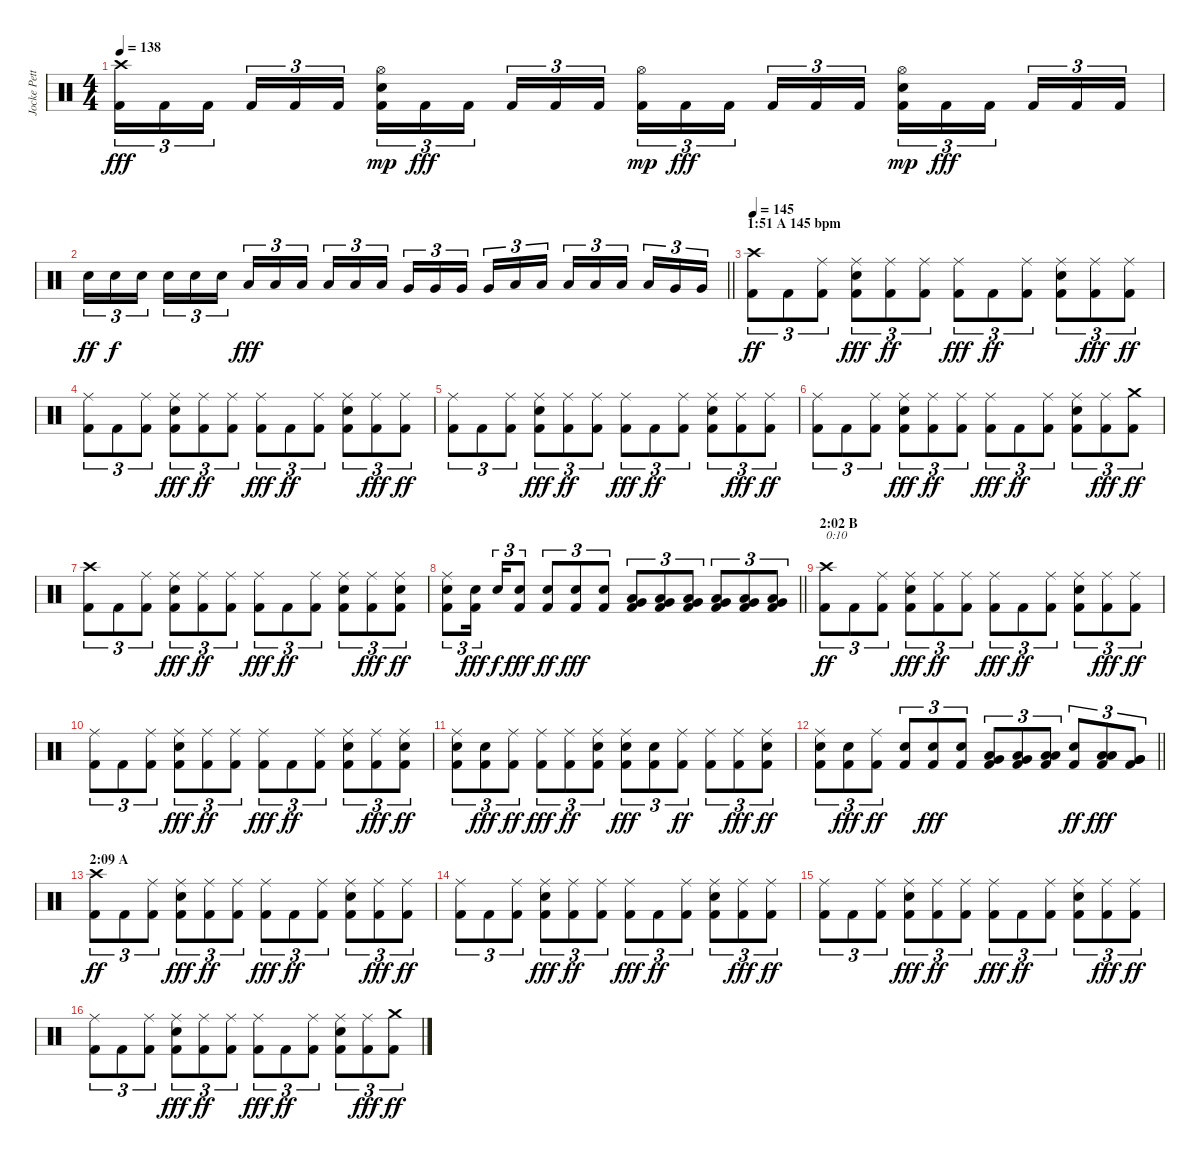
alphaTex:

\track ("Jocke Pettersson" "Jocke Pett") {instrument percussion}
\staff {score}
\articulation defaults
\ts (4 4)
\tempo 138
\clef neutral
\ks c
("Kick (hit) 2" "Crash high (hit)").16{tu (3 2) dy fff} "Kick (hit) 2".16{tu (3 2)} "Kick (hit) 2".16{tu (3 2) beam splitsecondary} "Kick (hit) 2".16{tu (3 2)} "Kick (hit) 2".16{tu (3 2)} "Kick (hit) 2".16{tu (3 2)} ("Kick (hit) 2" "Electric Snare (hit)" "Hi-Hat (open)").16{tu (3 2) dy mp} "Kick (hit) 2".16{tu (3 2) dy fff} "Kick (hit) 2".16{tu (3 2) beam splitsecondary} "Kick (hit) 2".16{tu (3 2)} "Kick (hit) 2".16{tu (3 2)} "Kick (hit) 2".16{tu (3 2)} ("Kick (hit) 2" "Hi-Hat (open)").16{tu (3 2) dy mp} "Kick (hit) 2".16{tu (3 2) dy fff} "Kick (hit) 2".16{tu (3 2) beam splitsecondary} "Kick (hit) 2".16{tu (3 2)} "Kick (hit) 2".16{tu (3 2)} "Kick (hit) 2".16{tu (3 2)} ("Kick (hit) 2" "Electric Snare (hit)" "Hi-Hat (open)").16{tu (3 2) dy mp} "Kick (hit) 2".16{tu (3 2) dy fff} "Kick (hit) 2".16{tu (3 2) beam splitsecondary} "Kick (hit) 2".16{tu (3 2)} "Kick (hit) 2".16{tu (3 2)} "Kick (hit) 2".16{tu (3 2)} |
\barLineRight lightlight "Electric Snare (hit)".16{tu (3 2) dy ff} "Electric Snare (hit)".16{tu (3 2) dy f} "Electric Snare (hit)".16{tu (3 2) beam splitsecondary} "Electric Snare (hit)".16{tu (3 2)} "Electric Snare (hit)".16{tu (3 2)} "Electric Snare (hit)".16{tu (3 2)} "Low Tom (hit)".16{tu (3 2) dy fff} "Low Tom (hit)".16{tu (3 2)} "Low Tom (hit)".16{tu (3 2) beam splitsecondary} "Low Tom (hit)".16{tu (3 2)} "Low Tom (hit)".16{tu (3 2)} "Low Tom (hit)".16{tu (3 2)} "Very Low Tom (hit)".16{tu (3 2)} "Very Low Tom (hit)".16{tu (3 2)} "Very Low Tom (hit)".16{tu (3 2) beam splitsecondary} "Very Low Tom (hit)".16{tu (3 2)} "Low Tom (hit)".16{tu (3 2)} "Low Tom (hit)".16{tu (3 2)} "Low Tom (hit)".16{tu (3 2)} "Low Tom (hit)".16{tu (3 2)} "Low Tom (hit)".16{tu (3 2) beam splitsecondary} "Low Tom (hit)".16{tu (3 2)} "Very Low Tom (hit)".16{tu (3 2)} "Very Low Tom (hit)".16{tu (3 2)}
|
\section ("" "1:51 A 145 bpm")
\tempo 145
("Kick (hit) 2" "Crash high (hit)").8{tu (3 2) dy ff} "Kick (hit) 2".8{tu (3 2)} ("Kick (hit) 2" "Ride (middle)").8{tu (3 2)} ("Kick (hit) 2" "Electric Snare (hit)" "Ride (middle)").8{tu (3 2) dy fff} ("Kick (hit) 2" "Ride (middle)").8{tu (3 2) dy ff} ("Kick (hit) 2" "Ride (middle)").8{tu (3 2)} ("Kick (hit) 2" "Ride (middle)").8{tu (3 2) dy fff} "Kick (hit) 2".8{tu (3 2) dy ff} ("Kick (hit) 2" "Ride (middle)").8{tu (3 2)} ("Kick (hit) 2" "Electric Snare (hit)" "Ride (middle)").8{tu (3 2)} ("Kick (hit) 2" "Ride (middle)").8{tu (3 2) dy fff} ("Kick (hit) 2" "Ride (middle)").8{tu (3 2) dy ff} |
("Kick (hit) 2" "Ride (middle)").8{tu (3 2)} "Kick (hit) 2".8{tu (3 2)} ("Kick (hit) 2" "Ride (middle)").8{tu (3 2)} ("Kick (hit) 2" "Electric Snare (hit)" "Ride (middle)").8{tu (3 2) dy fff} ("Kick (hit) 2" "Ride (middle)").8{tu (3 2) dy ff} ("Kick (hit) 2" "Ride (middle)").8{tu (3 2)} ("Kick (hit) 2" "Ride (middle)").8{tu (3 2) dy fff} "Kick (hit) 2".8{tu (3 2) dy ff} ("Kick (hit) 2" "Ride (middle)").8{tu (3 2)} ("Kick (hit) 2" "Electric Snare (hit)" "Ride (middle)").8{tu (3 2)} ("Kick (hit) 2" "Ride (middle)").8{tu (3 2) dy fff} ("Kick (hit) 2" "Ride (middle)").8{tu (3 2) dy ff} |
("Kick (hit) 2" "Ride (middle)").8{tu (3 2)} "Kick (hit) 2".8{tu (3 2)} ("Kick (hit) 2" "Ride (middle)").8{tu (3 2)} ("Kick (hit) 2" "Electric Snare (hit)" "Ride (middle)").8{tu (3 2) dy fff} ("Kick (hit) 2" "Ride (middle)").8{tu (3 2) dy ff} ("Kick (hit) 2" "Ride (middle)").8{tu (3 2)} ("Kick (hit) 2" "Ride (middle)").8{tu (3 2) dy fff} "Kick (hit) 2".8{tu (3 2) dy ff} ("Kick (hit) 2" "Ride (middle)").8{tu (3 2)} ("Kick (hit) 2" "Electric Snare (hit)" "Ride (middle)").8{tu (3 2)} ("Kick (hit) 2" "Ride (middle)").8{tu (3 2) dy fff} ("Kick (hit) 2" "Ride (middle)").8{tu (3 2) dy ff} |
("Kick (hit) 2" "Ride (middle)").8{tu (3 2)} "Kick (hit) 2".8{tu (3 2)} ("Kick (hit) 2" "Ride (middle)").8{tu (3 2)} ("Kick (hit) 2" "Electric Snare (hit)" "Ride (middle)").8{tu (3 2) dy fff} ("Kick (hit) 2" "Ride (middle)").8{tu (3 2) dy ff} ("Kick (hit) 2" "Ride (middle)").8{tu (3 2)} ("Kick (hit) 2" "Ride (middle)").8{tu (3 2) dy fff} "Kick (hit) 2".8{tu (3 2) dy ff} ("Kick (hit) 2" "Ride (middle)").8{tu (3 2)} ("Kick (hit) 2" "Electric Snare (hit)" "Ride (middle)").8{tu (3 2)} ("Kick (hit) 2" "Ride (middle)").8{tu (3 2) dy fff} ("Kick (hit) 2" "Crash medium (hit)").8{tu (3 2) dy ff} |
("Kick (hit) 2" "Crash high (hit)").8{tu (3 2)} "Kick (hit) 2".8{tu (3 2)} ("Kick (hit) 2" "Ride (middle)").8{tu (3 2)} ("Kick (hit) 2" "Electric Snare (hit)" "Ride (middle)").8{tu (3 2) dy fff} ("Kick (hit) 2" "Ride (middle)").8{tu (3 2) dy ff} ("Kick (hit) 2" "Ride (middle)").8{tu (3 2)} ("Kick (hit) 2" "Ride (middle)").8{tu (3 2) dy fff} "Kick (hit) 2".8{tu (3 2) dy ff} ("Kick (hit) 2" "Ride (middle)").8{tu (3 2)} ("Kick (hit) 2" "Electric Snare (hit)" "Ride (middle)").8{tu (3 2)} ("Kick (hit) 2" "Ride (middle)").8{tu (3 2) dy fff} ("Kick (hit) 2" "Electric Snare (hit)" "Ride (middle)").8{tu (3 2) dy ff} |
\barLineRight lightlight
("Kick (hit) 2" "Electric Snare (hit)" "Ride (middle)").8{tu (3 2)} ("Kick (hit) 2" "Electric Snare (hit)").16{tu (3 2) dy fff beam splitsecondary} "Electric Snare (hit)".16{tu (3 2) dy f} ("Kick (hit) 2" "Electric Snare (hit)").8{tu (3 2) dy fff} ("Kick (hit) 2" "Electric Snare (hit)").8{tu (3 2) dy ff} ("Kick (hit) 2" "Electric Snare (hit)").8{tu (3 2) dy fff} ("Kick (hit) 2" "Electric Snare (hit)").8{tu (3 2)} ("Kick (hit) 2" "Low Tom (hit)" "Very Low Tom (hit)").8{tu (3 2)} ("Kick (hit) 2" "Low Tom (hit)" "Very Low Tom (hit)").8{tu (3 2)} ("Kick (hit) 2" "Low Tom (hit)" "Very Low Tom (hit)").8{tu (3 2)} ("Kick (hit) 2" "Very Low Tom (hit)" "Low Floor Tom (hit)").8{tu (3 2)} ("Kick (hit) 2" "Very Low Tom (hit)" "Low Floor Tom (hit)").8{tu (3 2)} ("Kick (hit) 2" "Very Low Tom (hit)" "Low Floor Tom (hit)").8{tu (3 2)} |
\section ("" "2:02 B")
("Kick (hit) 2" "Crash high (hit)").8{tu (3 2) txt "0:10" dy ff} "Kick (hit) 2".8{tu (3 2)} ("Kick (hit) 2" "Ride (middle)").8{tu (3 2)} ("Kick (hit) 2" "Electric Snare (hit)" "Ride (middle)").8{tu (3 2) dy fff} ("Kick (hit) 2" "Ride (middle)").8{tu (3 2) dy ff} ("Kick (hit) 2" "Ride (middle)").8{tu (3 2)} ("Kick (hit) 2" "Ride (middle)").8{tu (3 2) dy fff} "Kick (hit) 2".8{tu (3 2) dy ff} ("Kick (hit) 2" "Ride (middle)").8{tu (3 2)} ("Kick (hit) 2" "Electric Snare (hit)" "Ride (middle)").8{tu (3 2)} ("Kick (hit) 2" "Ride (middle)").8{tu (3 2) dy fff} ("Kick (hit) 2" "Ride (middle)").8{tu (3 2) dy ff} |
("Kick (hit) 2" "Ride (middle)").8{tu (3 2)} "Kick (hit) 2".8{tu (3 2)} ("Kick (hit) 2" "Ride (middle)").8{tu (3 2)} ("Kick (hit) 2" "Electric Snare (hit)" "Ride (middle)").8{tu (3 2) dy fff} ("Kick (hit) 2" "Ride (middle)").8{tu (3 2) dy ff} ("Kick (hit) 2" "Ride (middle)").8{tu (3 2)} ("Kick (hit) 2" "Ride (middle)").8{tu (3 2) dy fff} "Kick (hit) 2".8{tu (3 2) dy ff} ("Kick (hit) 2" "Ride (middle)").8{tu (3 2)} ("Kick (hit) 2" "Electric Snare (hit)" "Ride (middle)").8{tu (3 2)} ("Kick (hit) 2" "Ride (middle)").8{tu (3 2) dy fff} ("Kick (hit) 2" "Electric Snare (hit)" "Ride (middle)").8{tu (3 2) dy ff} |
("Kick (hit) 2" "Electric Snare (hit)" "Ride (middle)").8{tu (3 2)} ("Kick (hit) 2" "Electric Snare (hit)").8{tu (3 2) dy fff} ("Kick (hit) 2" "Ride (middle)").8{tu (3 2) dy ff} ("Kick (hit) 2" "Ride (middle)").8{tu (3 2) dy fff} ("Kick (hit) 2" "Ride (middle)").8{tu (3 2) dy ff} ("Kick (hit) 2" "Electric Snare (hit)" "Ride (middle)").8{tu (3 2)} ("Kick (hit) 2" "Electric Snare (hit)" "Ride (middle)").8{tu (3 2) dy fff} ("Kick (hit) 2" "Electric Snare (hit)").8{tu (3 2)} ("Kick (hit) 2" "Ride (middle)").8{tu (3 2) dy ff} ("Kick (hit) 2" "Ride (middle)").8{tu (3 2)} ("Kick (hit) 2" "Ride (middle)").8{tu (3 2) dy fff} ("Kick (hit) 2" "Electric Snare (hit)" "Ride (middle)").8{tu (3 2) dy ff} |
\barLineRight lightlight
("Kick (hit) 2" "Electric Snare (hit)" "Ride (middle)").8{tu (3 2)} ("Kick (hit) 2" "Electric Snare (hit)").8{tu (3 2) dy fff} ("Kick (hit) 2" "Ride (middle)").8{tu (3 2) dy ff} ("Kick (hit) 2" "Electric Snare (hit)").8{tu (3 2)} ("Kick (hit) 2" "Electric Snare (hit)").8{tu (3 2) dy fff} ("Kick (hit) 2" "Electric Snare (hit)").8{tu (3 2)} ("Kick (hit) 2" "Low Tom (hit)" "Very Low Tom (hit)").8{tu (3 2)} ("Kick (hit) 2" "Low Tom (hit)" "Very Low Tom (hit)").8{tu (3 2)} ("Kick (hit) 2" "Low Tom (hit)" "Low Floor Tom (hit)").8{tu (3 2)} ("Kick (hit) 2" "Electric Snare (hit)").8{tu (3 2) dy ff} ("Kick (hit) 2" "Low Tom (hit)" "Low Tom (hit)").8{tu (3 2) dy fff} ("Kick (hit) 2" "Very Low Tom (hit)" "Very Low Tom (hit)").8{tu (3 2)} |
\section ("" "2:09 A")
("Kick (hit) 2" "Crash high (hit)").8{tu (3 2) dy ff} "Kick (hit) 2".8{tu (3 2)} ("Kick (hit) 2" "Ride (middle)").8{tu (3 2)} ("Kick (hit) 2" "Electric Snare (hit)" "Ride (middle)").8{tu (3 2) dy fff} ("Kick (hit) 2" "Ride (middle)").8{tu (3 2) dy ff} ("Kick (hit) 2" "Ride (middle)").8{tu (3 2)} ("Kick (hit) 2" "Ride (middle)").8{tu (3 2) dy fff} "Kick (hit) 2".8{tu (3 2) dy ff} ("Kick (hit) 2" "Ride (middle)").8{tu (3 2)} ("Kick (hit) 2" "Electric Snare (hit)" "Ride (middle)").8{tu (3 2)} ("Kick (hit) 2" "Ride (middle)").8{tu (3 2) dy fff} ("Kick (hit) 2" "Ride (middle)").8{tu (3 2) dy ff} |
("Kick (hit) 2" "Ride (middle)").8{tu (3 2)} "Kick (hit) 2".8{tu (3 2)} ("Kick (hit) 2" "Ride (middle)").8{tu (3 2)} ("Kick (hit) 2" "Electric Snare (hit)" "Ride (middle)").8{tu (3 2) dy fff} ("Kick (hit) 2" "Ride (middle)").8{tu (3 2) dy ff} ("Kick (hit) 2" "Ride (middle)").8{tu (3 2)} ("Kick (hit) 2" "Ride (middle)").8{tu (3 2) dy fff} "Kick (hit) 2".8{tu (3 2) dy ff} ("Kick (hit) 2" "Ride (middle)").8{tu (3 2)} ("Kick (hit) 2" "Electric Snare (hit)" "Ride (middle)").8{tu (3 2)} ("Kick (hit) 2" "Ride (middle)").8{tu (3 2) dy fff} ("Kick (hit) 2" "Ride (middle)").8{tu (3 2) dy ff} |
("Kick (hit) 2" "Ride (middle)").8{tu (3 2)} "Kick (hit) 2".8{tu (3 2)} ("Kick (hit) 2" "Ride (middle)").8{tu (3 2)} ("Kick (hit) 2" "Electric Snare (hit)" "Ride (middle)").8{tu (3 2) dy fff} ("Kick (hit) 2" "Ride (middle)").8{tu (3 2) dy ff} ("Kick (hit) 2" "Ride (middle)").8{tu (3 2)} ("Kick (hit) 2" "Ride (middle)").8{tu (3 2) dy fff} "Kick (hit) 2".8{tu (3 2) dy ff} ("Kick (hit) 2" "Ride (middle)").8{tu (3 2)} ("Kick (hit) 2" "Electric Snare (hit)" "Ride (middle)").8{tu (3 2)} ("Kick (hit) 2" "Ride (middle)").8{tu (3 2) dy fff} ("Kick (hit) 2" "Ride (middle)").8{tu (3 2) dy ff} |
("Kick (hit) 2" "Ride (middle)").8{tu (3 2)} "Kick (hit) 2".8{tu (3 2)} ("Kick (hit) 2" "Ride (middle)").8{tu (3 2)} ("Kick (hit) 2" "Electric Snare (hit)" "Ride (middle)").8{tu (3 2) dy fff} ("Kick (hit) 2" "Ride (middle)").8{tu (3 2) dy ff} ("Kick (hit) 2" "Ride (middle)").8{tu (3 2)} ("Kick (hit) 2" "Ride (middle)").8{tu (3 2) dy fff} "Kick (hit) 2".8{tu (3 2) dy ff} ("Kick (hit) 2" "Ride (middle)").8{tu (3 2)} ("Kick (hit) 2" "Electric Snare (hit)" "Ride (middle)").8{tu (3 2)} ("Kick (hit) 2" "Ride (middle)").8{tu (3 2) dy fff} ("Kick (hit) 2" "Crash medium (hit)").8{tu (3 2) dy ff}
